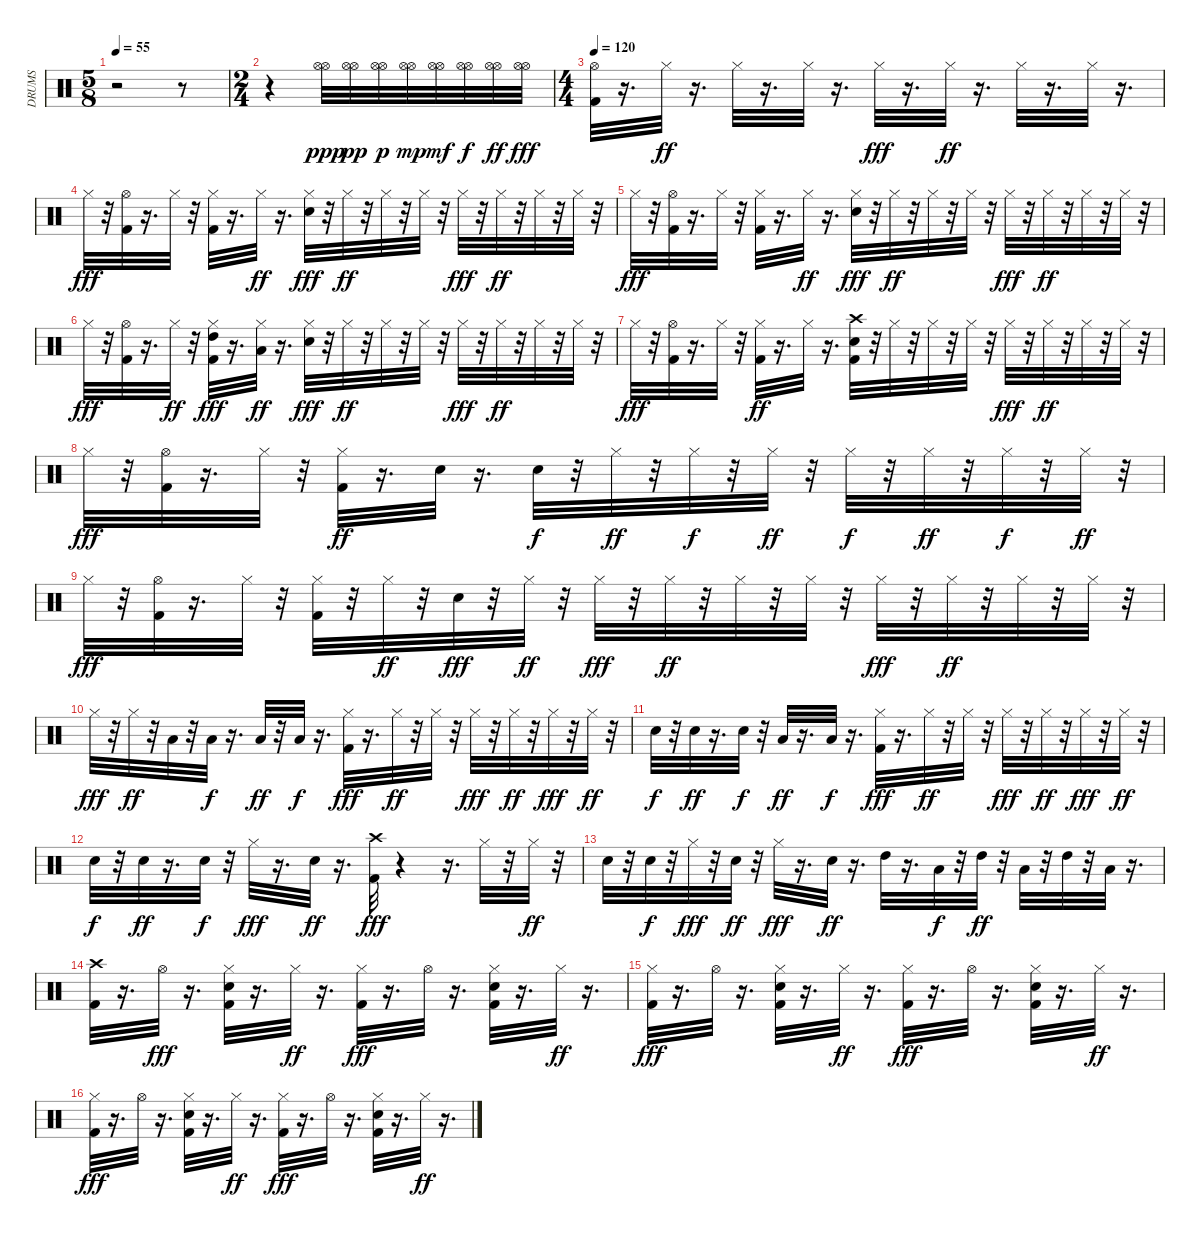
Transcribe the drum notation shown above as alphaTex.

\track ("DRUMS            " "DRUMS     ") {instrument percussion}
\staff {score}
\articulation defaults
\ts (5 8)
\tempo 55
\clef neutral
\ks c
r.2{dy mp} r.8 |
\ts (2 4)
r.4 ("Hi-Hat (open)" "Hi-Hat (open)").32{dy ppp} ("Hi-Hat (open)" "Hi-Hat (open)").32{dy pp} ("Hi-Hat (open)" "Hi-Hat (open)").32{dy p} ("Hi-Hat (open)" "Hi-Hat (open)").32{dy mp} ("Hi-Hat (open)" "Hi-Hat (open)").32{dy mf} ("Hi-Hat (open)" "Hi-Hat (open)").32{dy f} ("Hi-Hat (open)" "Hi-Hat (open)").32{dy ff} ("Hi-Hat (open)" "Hi-Hat (open)").32{dy fff} |
\ts (4 4)
\tempo 120
("Kick (hit) 2" "Hi-Hat (open)").32{volume 14} r.16{d} "Hi-Hat (closed)".32{dy ff} r.16{d} "Hi-Hat (closed)".32 r.16{d} "Hi-Hat (closed)".32 r.16{d} "Hi-Hat (closed)".32{dy fff} r.16{d} "Hi-Hat (closed)".32{dy ff} r.16{d} "Hi-Hat (closed)".32 r.16{d} "Hi-Hat (closed)".32 r.16{d} |
"Hi-Hat (closed)".32{dy fff} r.32 ("Kick (hit) 2" "Hi-Hat (open)").32 r.16{d} "Hi-Hat (closed)".32 r.32 ("Kick (hit) 2" "Hi-Hat (closed)").32 r.16{d} "Hi-Hat (closed)".32{dy ff} r.16{d} ("Snare (hit) 2" "Hi-Hat (closed)").32{dy fff} r.32 "Hi-Hat (closed)".32{dy ff} r.32 "Hi-Hat (closed)".32 r.32 "Hi-Hat (closed)".32 r.32 "Hi-Hat (closed)".32{dy fff} r.32 "Hi-Hat (closed)".32{dy ff} r.32 "Hi-Hat (closed)".32 r.32 "Hi-Hat (closed)".32 r.32 |
"Hi-Hat (closed)".32{dy fff} r.32 ("Kick (hit) 2" "Hi-Hat (open)").32 r.16{d} "Hi-Hat (closed)".32 r.32 ("Kick (hit) 2" "Hi-Hat (closed)").32 r.16{d} "Hi-Hat (closed)".32{dy ff} r.16{d} ("Snare (hit) 2" "Hi-Hat (closed)").32{dy fff} r.32 "Hi-Hat (closed)".32{dy ff} r.32 "Hi-Hat (closed)".32 r.32 "Hi-Hat (closed)".32 r.32 "Hi-Hat (closed)".32{dy fff} r.32 "Hi-Hat (closed)".32{dy ff} r.32 "Hi-Hat (closed)".32 r.32 "Hi-Hat (closed)".32 r.32 |
"Hi-Hat (closed)".32{dy fff} r.32 ("Kick (hit) 2" "Hi-Hat (open)").32 r.16{d} "Hi-Hat (closed)".32{dy ff} r.32 ("Kick (hit) 2" "High Tom (hit)" "Hi-Hat (closed)").32{dy fff} r.16{d} ("Low Tom (hit)" "Hi-Hat (closed)").32{dy ff} r.16{d} ("Snare (hit) 2" "Hi-Hat (closed)").32{dy fff} r.32 "Hi-Hat (closed)".32{dy ff} r.32 "Hi-Hat (closed)".32 r.32 "Hi-Hat (closed)".32 r.32 "Hi-Hat (closed)".32{dy fff} r.32 "Hi-Hat (closed)".32{dy ff} r.32 "Hi-Hat (closed)".32 r.32 "Hi-Hat (closed)".32 r.32 |
"Hi-Hat (closed)".32{dy fff} r.32 ("Kick (hit) 2" "Hi-Hat (open)").32 r.16{d} "Hi-Hat (closed)".32 r.32 ("Kick (hit) 2" "Hi-Hat (closed)").32{dy ff} r.16{d} "Hi-Hat (closed)".32 r.16{d} ("Snare (hit) 2" "Kick (hit) 2" "Crash high (hit)").32 r.32 "Hi-Hat (closed)".32 r.32 "Hi-Hat (closed)".32 r.32 "Hi-Hat (closed)".32 r.32 "Hi-Hat (closed)".32{dy fff} r.32 "Hi-Hat (closed)".32{dy ff} r.32 "Hi-Hat (closed)".32 r.32 "Hi-Hat (closed)".32 r.32 |
"Hi-Hat (closed)".32{dy fff} r.32 ("Kick (hit) 2" "Hi-Hat (open)").32 r.16{d} "Hi-Hat (closed)".32 r.32 ("Kick (hit) 2" "Hi-Hat (closed)").32{dy ff} r.16{d} "Snare (hit) 2".32 r.16{d} "Snare (hit) 2".32{dy f} r.32 "Hi-Hat (closed)".32{dy ff} r.32 "Hi-Hat (closed)".32{dy f} r.32 "Hi-Hat (closed)".32{dy ff} r.32 "Hi-Hat (closed)".32{dy f} r.32 "Hi-Hat (closed)".32{dy ff} r.32 "Hi-Hat (closed)".32{dy f} r.32 "Hi-Hat (closed)".32{dy ff} r.32 |
"Hi-Hat (closed)".32{dy fff} r.32 ("Kick (hit) 2" "Hi-Hat (open)").32 r.16{d} "Hi-Hat (closed)".32 r.32 ("Kick (hit) 2" "Hi-Hat (closed)").32 r.32 "Hi-Hat (closed)".32{dy ff} r.32 "Snare (hit) 2".32{dy fff} r.32 "Hi-Hat (closed)".32{dy ff} r.32 "Hi-Hat (closed)".32{dy fff} r.32 "Hi-Hat (closed)".32{dy ff} r.32 "Hi-Hat (closed)".32 r.32 "Hi-Hat (closed)".32 r.32 "Hi-Hat (closed)".32{dy fff} r.32 "Hi-Hat (closed)".32{dy ff} r.32 "Hi-Hat (closed)".32 r.32 "Hi-Hat (closed)".32 r.32 |
"Hi-Hat (closed)".32{dy fff} r.32 "Hi-Hat (closed)".32{dy ff} r.32 "Low Tom (hit)".32 r.32 "Low Tom (hit)".32{dy f} r.16{d} "Low Tom (hit)".32{dy ff} r.32 "Low Tom (hit)".32{dy f} r.16{d} ("Kick (hit) 2" "Hi-Hat (closed)").32{dy fff} r.16{d} "Hi-Hat (closed)".32{dy ff} r.32 "Hi-Hat (closed)".32 r.32 "Hi-Hat (closed)".32{dy fff} r.32 "Hi-Hat (closed)".32{dy ff} r.32 "Hi-Hat (closed)".32{dy fff} r.32 "Hi-Hat (closed)".32{dy ff} r.32 |
"Snare (hit) 2".32{dy f} r.32 "Snare (hit) 2".32{dy ff} r.16{d} "Snare (hit) 2".32{dy f} r.32 "Low Tom (hit)".32{dy ff} r.16{d} "Low Floor Tom (hit)".32{dy f} r.16{d} ("Kick (hit) 2" "Hi-Hat (closed)").32{dy fff} r.16{d} "Hi-Hat (closed)".32{dy ff} r.32 "Hi-Hat (closed)".32 r.32 "Hi-Hat (closed)".32{dy fff} r.32 "Hi-Hat (closed)".32{dy ff} r.32 "Hi-Hat (closed)".32{dy fff} r.32 "Hi-Hat (closed)".32{dy ff} r.32 |
"Snare (hit) 2".32{dy f} r.32 "Snare (hit) 2".32{dy ff} r.16{d} "Snare (hit) 2".32{dy f} r.32 "Hi-Hat (closed)".32{dy fff} r.16{d} "Snare (hit) 2".32{dy ff} r.16{d} ("Kick (hit) 2" "Crash high (hit)").32{dy fff} r.4 r.16{d} "Hi-Hat (closed)".32 r.32 "Hi-Hat (closed)".32{dy ff} r.32 |
"Snare (hit) 2".32 r.32 "Snare (hit) 2".32{dy f} r.32 "Hi-Hat (closed)".32{dy fff} r.32 "Snare (hit) 2".32{dy ff} r.32 "Hi-Hat (closed)".32{dy fff} r.16{d} "Snare (hit) 2".32{dy ff} r.16{d} "High Tom (hit)".32 r.16{d} "Low Tom (hit)".32{dy f} r.32 "High Tom (hit)".32{dy ff} r.32 "Low Tom (hit)".32 r.32 "High Tom (hit)".32 r.32 "Low Floor Tom (hit)".32 r.16{d} |
("Kick (hit) 2" "Crash high (hit)").32 r.16{d} "Hi-Hat (open)".32{dy fff} r.16{d} ("Kick (hit) 2" "Snare (hit) 2" "Hi-Hat (closed)").32 r.16{d} "Hi-Hat (closed)".32{dy ff} r.16{d} ("Kick (hit) 2" "Hi-Hat (closed)").32{dy fff} r.16{d} "Hi-Hat (open)".32 r.16{d} ("Kick (hit) 2" "Snare (hit) 2" "Hi-Hat (closed)").32 r.16{d} "Hi-Hat (closed)".32{dy ff} r.16{d} |
("Kick (hit) 2" "Hi-Hat (closed)").32{dy fff} r.16{d} "Hi-Hat (open)".32 r.16{d} ("Kick (hit) 2" "Snare (hit) 2" "Hi-Hat (closed)").32 r.16{d} "Hi-Hat (closed)".32{dy ff} r.16{d} ("Kick (hit) 2" "Hi-Hat (closed)").32{dy fff} r.16{d} "Hi-Hat (open)".32 r.16{d} ("Kick (hit) 2" "Snare (hit) 2" "Hi-Hat (closed)").32 r.16{d} "Hi-Hat (closed)".32{dy ff} r.16{d} |
("Kick (hit) 2" "Hi-Hat (closed)").32{dy fff} r.16{d} "Hi-Hat (open)".32 r.16{d} ("Kick (hit) 2" "Snare (hit) 2" "Hi-Hat (closed)").32 r.16{d} "Hi-Hat (closed)".32{dy ff} r.16{d} ("Kick (hit) 2" "Hi-Hat (closed)").32{dy fff} r.16{d} "Hi-Hat (open)".32 r.16{d} ("Kick (hit) 2" "Snare (hit) 2" "Hi-Hat (closed)").32 r.16{d} "Hi-Hat (closed)".32{dy ff} r.16{d}
